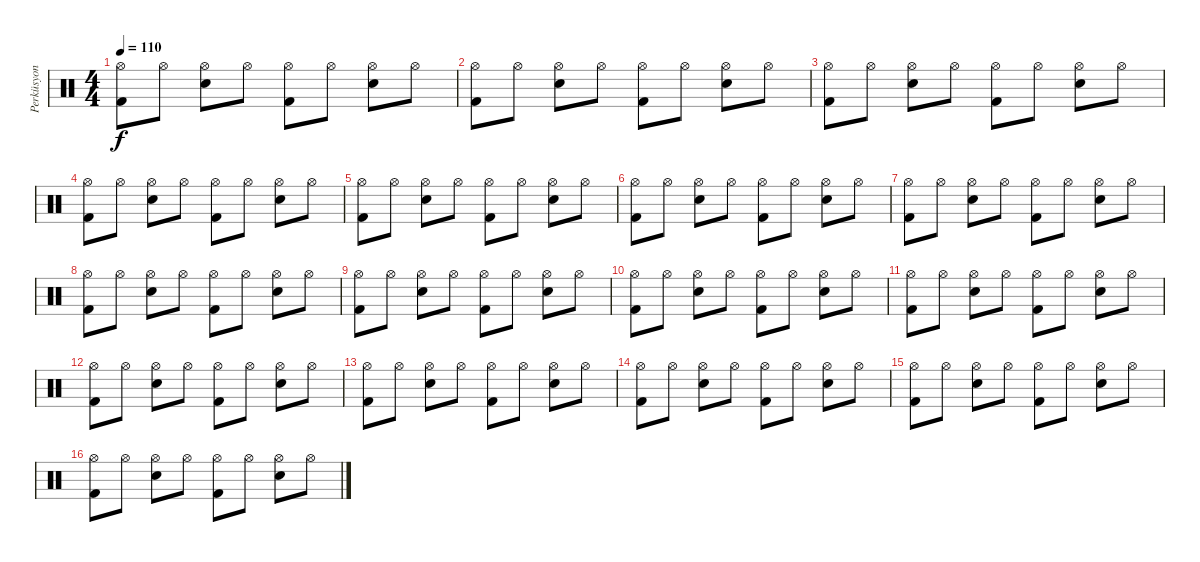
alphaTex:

\track ("Perküsyon" "Perküsyon") {instrument percussion}
\staff {score}
\articulation defaults
\ts (4 4)
\tempo 110
\clef neutral
\ks c
("Hi-Hat (open)" "Kick (hit) 2").8{dy f} "Hi-Hat (open)".8 ("Hi-Hat (open)" "Snare (hit) 2").8 "Hi-Hat (open)".8 ("Hi-Hat (open)" "Kick (hit) 2").8 "Hi-Hat (open)".8 ("Hi-Hat (open)" "Snare (hit) 2").8 "Hi-Hat (open)".8 |
("Hi-Hat (open)" "Kick (hit) 2").8 "Hi-Hat (open)".8 ("Hi-Hat (open)" "Snare (hit) 2").8 "Hi-Hat (open)".8 ("Hi-Hat (open)" "Kick (hit) 2").8 "Hi-Hat (open)".8 ("Hi-Hat (open)" "Snare (hit) 2").8 "Hi-Hat (open)".8 |
("Hi-Hat (open)" "Kick (hit) 2").8 "Hi-Hat (open)".8 ("Hi-Hat (open)" "Snare (hit) 2").8 "Hi-Hat (open)".8 ("Hi-Hat (open)" "Kick (hit) 2").8 "Hi-Hat (open)".8 ("Hi-Hat (open)" "Snare (hit) 2").8 "Hi-Hat (open)".8 |
("Hi-Hat (open)" "Kick (hit) 2").8 "Hi-Hat (open)".8 ("Hi-Hat (open)" "Snare (hit) 2").8 "Hi-Hat (open)".8 ("Hi-Hat (open)" "Kick (hit) 2").8 "Hi-Hat (open)".8 ("Hi-Hat (open)" "Snare (hit) 2").8 "Hi-Hat (open)".8 |
("Hi-Hat (open)" "Kick (hit) 2").8 "Hi-Hat (open)".8 ("Hi-Hat (open)" "Snare (hit) 2").8 "Hi-Hat (open)".8 ("Hi-Hat (open)" "Kick (hit) 2").8 "Hi-Hat (open)".8 ("Hi-Hat (open)" "Snare (hit) 2").8 "Hi-Hat (open)".8 |
("Hi-Hat (open)" "Kick (hit) 2").8 "Hi-Hat (open)".8 ("Hi-Hat (open)" "Snare (hit) 2").8 "Hi-Hat (open)".8 ("Hi-Hat (open)" "Kick (hit) 2").8 "Hi-Hat (open)".8 ("Hi-Hat (open)" "Snare (hit) 2").8 "Hi-Hat (open)".8 |
("Hi-Hat (open)" "Kick (hit) 2").8 "Hi-Hat (open)".8 ("Hi-Hat (open)" "Snare (hit) 2").8 "Hi-Hat (open)".8 ("Hi-Hat (open)" "Kick (hit) 2").8 "Hi-Hat (open)".8 ("Hi-Hat (open)" "Snare (hit) 2").8 "Hi-Hat (open)".8 |
("Hi-Hat (open)" "Kick (hit) 2").8 "Hi-Hat (open)".8 ("Hi-Hat (open)" "Snare (hit) 2").8 "Hi-Hat (open)".8 ("Hi-Hat (open)" "Kick (hit) 2").8 "Hi-Hat (open)".8 ("Hi-Hat (open)" "Snare (hit) 2").8 "Hi-Hat (open)".8 |
("Hi-Hat (open)" "Kick (hit) 2").8 "Hi-Hat (open)".8 ("Hi-Hat (open)" "Snare (hit) 2").8 "Hi-Hat (open)".8 ("Hi-Hat (open)" "Kick (hit) 2").8 "Hi-Hat (open)".8 ("Hi-Hat (open)" "Snare (hit) 2").8 "Hi-Hat (open)".8 |
("Hi-Hat (open)" "Kick (hit) 2").8 "Hi-Hat (open)".8 ("Hi-Hat (open)" "Snare (hit) 2").8 "Hi-Hat (open)".8 ("Hi-Hat (open)" "Kick (hit) 2").8 "Hi-Hat (open)".8 ("Hi-Hat (open)" "Snare (hit) 2").8 "Hi-Hat (open)".8 |
("Hi-Hat (open)" "Kick (hit) 2").8 "Hi-Hat (open)".8 ("Hi-Hat (open)" "Snare (hit) 2").8 "Hi-Hat (open)".8 ("Hi-Hat (open)" "Kick (hit) 2").8 "Hi-Hat (open)".8 ("Hi-Hat (open)" "Snare (hit) 2").8 "Hi-Hat (open)".8 |
("Hi-Hat (open)" "Kick (hit) 2").8 "Hi-Hat (open)".8 ("Hi-Hat (open)" "Snare (hit) 2").8 "Hi-Hat (open)".8 ("Hi-Hat (open)" "Kick (hit) 2").8 "Hi-Hat (open)".8 ("Hi-Hat (open)" "Snare (hit) 2").8 "Hi-Hat (open)".8 |
("Hi-Hat (open)" "Kick (hit) 2").8 "Hi-Hat (open)".8 ("Hi-Hat (open)" "Snare (hit) 2").8 "Hi-Hat (open)".8 ("Hi-Hat (open)" "Kick (hit) 2").8 "Hi-Hat (open)".8 ("Hi-Hat (open)" "Snare (hit) 2").8 "Hi-Hat (open)".8 |
("Hi-Hat (open)" "Kick (hit) 2").8 "Hi-Hat (open)".8 ("Hi-Hat (open)" "Snare (hit) 2").8 "Hi-Hat (open)".8 ("Hi-Hat (open)" "Kick (hit) 2").8 "Hi-Hat (open)".8 ("Hi-Hat (open)" "Snare (hit) 2").8 "Hi-Hat (open)".8 |
("Hi-Hat (open)" "Kick (hit) 2").8 "Hi-Hat (open)".8 ("Hi-Hat (open)" "Snare (hit) 2").8 "Hi-Hat (open)".8 ("Hi-Hat (open)" "Kick (hit) 2").8 "Hi-Hat (open)".8 ("Hi-Hat (open)" "Snare (hit) 2").8 "Hi-Hat (open)".8 |
("Hi-Hat (open)" "Kick (hit) 2").8 "Hi-Hat (open)".8 ("Hi-Hat (open)" "Snare (hit) 2").8 "Hi-Hat (open)".8 ("Hi-Hat (open)" "Kick (hit) 2").8 "Hi-Hat (open)".8 ("Hi-Hat (open)" "Snare (hit) 2").8 "Hi-Hat (open)".8
